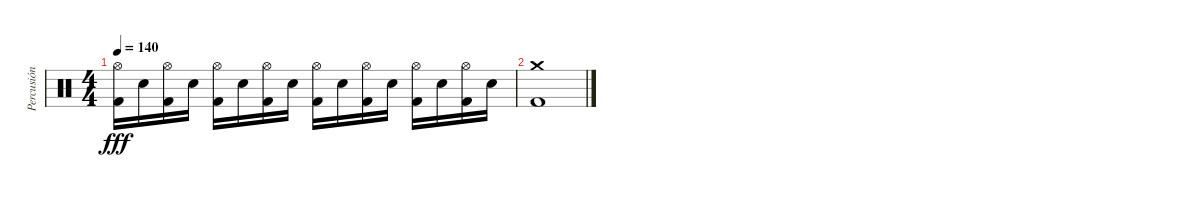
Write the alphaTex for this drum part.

\track ("Percusión" "Percusión") {instrument percussion}
\staff {score}
\articulation defaults
\ts (4 4)
\tempo 140
\clef neutral
\ks c
("Hi-Hat (open)" "Kick (hit) 2").16{dy fff} "Electric Snare (hit)".16 ("Hi-Hat (open)" "Kick (hit) 2").16 "Electric Snare (hit)".16 ("Hi-Hat (open)" "Kick (hit) 2").16 "Electric Snare (hit)".16 ("Hi-Hat (open)" "Kick (hit) 2").16 "Electric Snare (hit)".16 ("Hi-Hat (open)" "Kick (hit) 2").16 "Electric Snare (hit)".16 ("Hi-Hat (open)" "Kick (hit) 2").16 "Electric Snare (hit)".16 ("Hi-Hat (open)" "Kick (hit) 2").16 "Electric Snare (hit)".16 ("Hi-Hat (open)" "Kick (hit) 2").16 "Electric Snare (hit)".16 |
("Crash medium (hit)" "Kick (hit) 2").1
